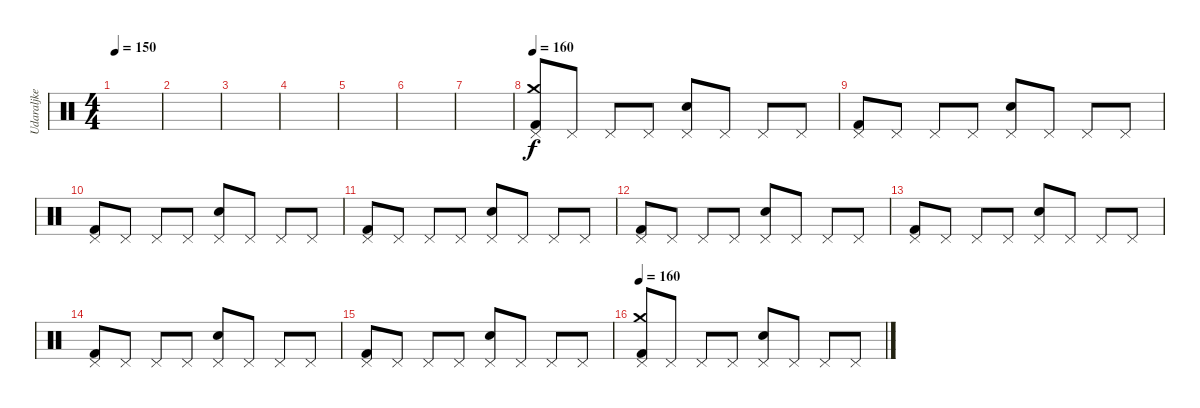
\track ("Udaraljke" "Udaraljke") {instrument percussion}
\staff {score}
\articulation defaults
\ts (4 4)
\tempo 150
\clef neutral
\ks c
|
|
|
|
|
|
|
\tempo 160
("Pedal Hi-Hat (hit)" "Crash medium (hit)" "Kick (hit) 2").8 "Pedal Hi-Hat (hit)".8 "Pedal Hi-Hat (hit)".8 "Pedal Hi-Hat (hit)".8 ("Pedal Hi-Hat (hit)" "Snare (hit) 2").8 "Pedal Hi-Hat (hit)".8 "Pedal Hi-Hat (hit)".8 "Pedal Hi-Hat (hit)".8 |
("Pedal Hi-Hat (hit)" "Kick (hit) 2").8 "Pedal Hi-Hat (hit)".8 "Pedal Hi-Hat (hit)".8 "Pedal Hi-Hat (hit)".8 ("Pedal Hi-Hat (hit)" "Snare (hit) 2").8 "Pedal Hi-Hat (hit)".8 "Pedal Hi-Hat (hit)".8 "Pedal Hi-Hat (hit)".8 |
("Pedal Hi-Hat (hit)" "Kick (hit) 2").8 "Pedal Hi-Hat (hit)".8 "Pedal Hi-Hat (hit)".8 "Pedal Hi-Hat (hit)".8 ("Pedal Hi-Hat (hit)" "Snare (hit) 2").8 "Pedal Hi-Hat (hit)".8 "Pedal Hi-Hat (hit)".8 "Pedal Hi-Hat (hit)".8 |
("Pedal Hi-Hat (hit)" "Kick (hit) 2").8 "Pedal Hi-Hat (hit)".8 "Pedal Hi-Hat (hit)".8 "Pedal Hi-Hat (hit)".8 ("Pedal Hi-Hat (hit)" "Snare (hit) 2").8 "Pedal Hi-Hat (hit)".8 "Pedal Hi-Hat (hit)".8 "Pedal Hi-Hat (hit)".8 |
("Pedal Hi-Hat (hit)" "Kick (hit) 2").8 "Pedal Hi-Hat (hit)".8 "Pedal Hi-Hat (hit)".8 "Pedal Hi-Hat (hit)".8 ("Pedal Hi-Hat (hit)" "Snare (hit) 2").8 "Pedal Hi-Hat (hit)".8 "Pedal Hi-Hat (hit)".8 "Pedal Hi-Hat (hit)".8 |
("Pedal Hi-Hat (hit)" "Kick (hit) 2").8 "Pedal Hi-Hat (hit)".8 "Pedal Hi-Hat (hit)".8 "Pedal Hi-Hat (hit)".8 ("Pedal Hi-Hat (hit)" "Snare (hit) 2").8 "Pedal Hi-Hat (hit)".8 "Pedal Hi-Hat (hit)".8 "Pedal Hi-Hat (hit)".8 |
("Pedal Hi-Hat (hit)" "Kick (hit) 2").8 "Pedal Hi-Hat (hit)".8 "Pedal Hi-Hat (hit)".8 "Pedal Hi-Hat (hit)".8 ("Pedal Hi-Hat (hit)" "Snare (hit) 2").8 "Pedal Hi-Hat (hit)".8 "Pedal Hi-Hat (hit)".8 "Pedal Hi-Hat (hit)".8 |
("Pedal Hi-Hat (hit)" "Kick (hit) 2").8 "Pedal Hi-Hat (hit)".8 "Pedal Hi-Hat (hit)".8 "Pedal Hi-Hat (hit)".8 ("Pedal Hi-Hat (hit)" "Snare (hit) 2").8 "Pedal Hi-Hat (hit)".8 "Pedal Hi-Hat (hit)".8 "Pedal Hi-Hat (hit)".8 |
\tempo 160
("Pedal Hi-Hat (hit)" "Crash medium (hit)" "Kick (hit) 2").8 "Pedal Hi-Hat (hit)".8 "Pedal Hi-Hat (hit)".8 "Pedal Hi-Hat (hit)".8 ("Pedal Hi-Hat (hit)" "Snare (hit) 2").8 "Pedal Hi-Hat (hit)".8 "Pedal Hi-Hat (hit)".8 "Pedal Hi-Hat (hit)".8
